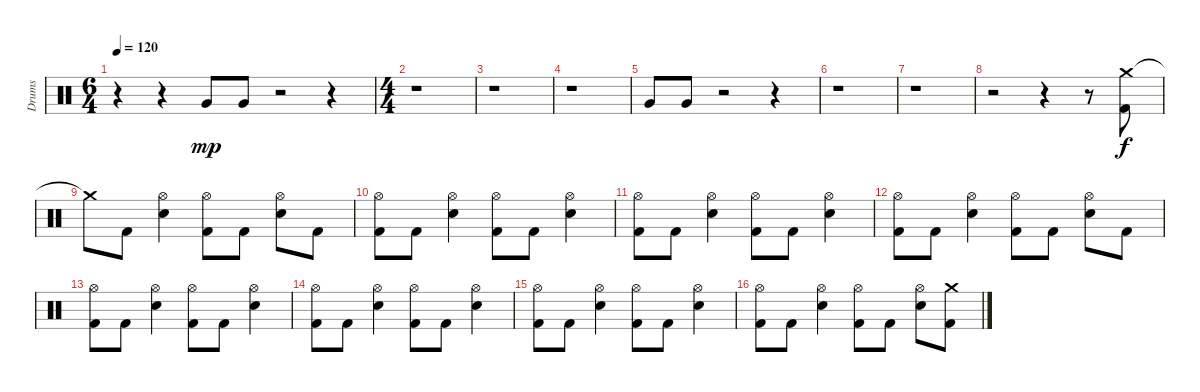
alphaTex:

\track ("Drums" "Drums") {instrument percussion}
\staff {score}
\articulation defaults
\ts (6 4)
\tempo 120
\clef neutral
\ks c
r.4{dy mp} r.4 "Very Low Tom (hit)".8 "Very Low Tom (hit)".8 r.2 r.4 |
\ts (4 4)
r.1 |
r.1 |
r.1 |
"Very Low Tom (hit)".8 "Very Low Tom (hit)".8 r.2 r.4 |
r.1 |
r.1 |
r.2 r.4 r.8 ("Crash medium (hit)" "Kick (hit) 2").8{dy f} |
"Crash medium (hit)"{t}.8 "Kick (hit) 2".8 ("Hi-Hat (open)" "Electric Snare (hit)").4 ("Hi-Hat (open)" "Kick (hit) 2").8 "Kick (hit) 2".8 ("Hi-Hat (open)" "Electric Snare (hit)").8 "Kick (hit) 2".8 |
("Hi-Hat (open)" "Kick (hit) 2").8 "Kick (hit) 2".8 ("Hi-Hat (open)" "Electric Snare (hit)").4 ("Hi-Hat (open)" "Kick (hit) 2").8 "Kick (hit) 2".8 ("Hi-Hat (open)" "Electric Snare (hit)").4 |
("Hi-Hat (open)" "Kick (hit) 2").8 "Kick (hit) 2".8 ("Hi-Hat (open)" "Electric Snare (hit)").4 ("Hi-Hat (open)" "Kick (hit) 2").8 "Kick (hit) 2".8 ("Hi-Hat (open)" "Electric Snare (hit)").4 |
("Hi-Hat (open)" "Kick (hit) 2").8 "Kick (hit) 2".8 ("Hi-Hat (open)" "Electric Snare (hit)").4 ("Hi-Hat (open)" "Kick (hit) 2").8 "Kick (hit) 2".8 ("Hi-Hat (open)" "Electric Snare (hit)").8 "Kick (hit) 2".8 |
("Hi-Hat (open)" "Kick (hit) 2").8 "Kick (hit) 2".8 ("Hi-Hat (open)" "Electric Snare (hit)").4 ("Hi-Hat (open)" "Kick (hit) 2").8 "Kick (hit) 2".8 ("Hi-Hat (open)" "Electric Snare (hit)").4 |
("Hi-Hat (open)" "Kick (hit) 2").8 "Kick (hit) 2".8 ("Hi-Hat (open)" "Electric Snare (hit)").4 ("Hi-Hat (open)" "Kick (hit) 2").8 "Kick (hit) 2".8 ("Hi-Hat (open)" "Electric Snare (hit)").4 |
("Hi-Hat (open)" "Kick (hit) 2").8 "Kick (hit) 2".8 ("Hi-Hat (open)" "Electric Snare (hit)").4 ("Hi-Hat (open)" "Kick (hit) 2").8 "Kick (hit) 2".8 ("Hi-Hat (open)" "Electric Snare (hit)").4 |
("Hi-Hat (open)" "Kick (hit) 2").8 "Kick (hit) 2".8 ("Hi-Hat (open)" "Electric Snare (hit)").4 ("Hi-Hat (open)" "Kick (hit) 2").8 "Kick (hit) 2".8 ("Hi-Hat (open)" "Electric Snare (hit)").8 ("Crash medium (hit)" "Kick (hit) 2").8
